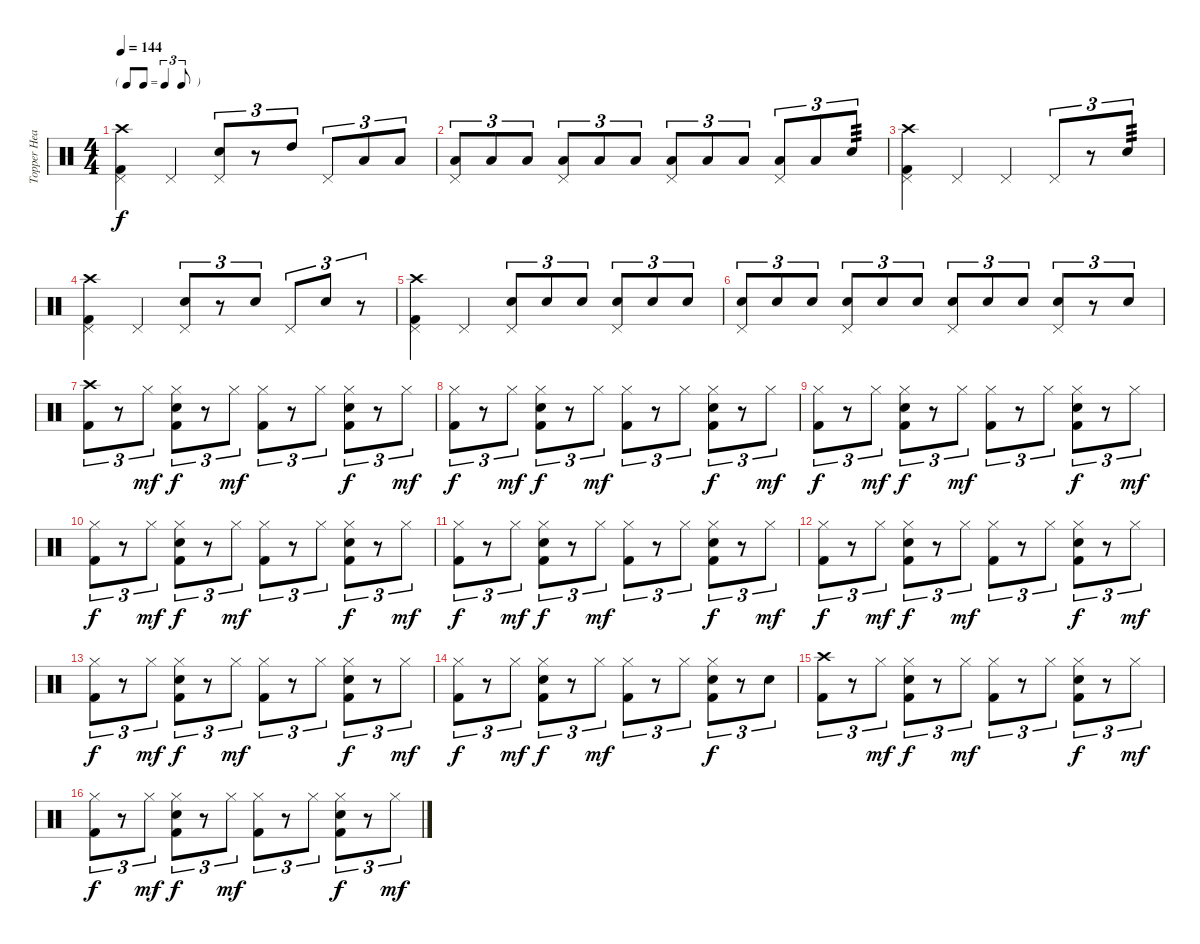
\track ("Topper Headon" "Topper Hea") {instrument percussion}
\staff {score}
\articulation defaults
\ts (4 4)
\tf triplet8th
\tempo 144
\clef neutral
\ks c
("Crash high (hit)" "Pedal Hi-Hat (hit)" "Kick (hit) 2").4{dy f} "Pedal Hi-Hat (hit)".4 ("Pedal Hi-Hat (hit)" "Snare (hit) 2").8{tu (3 2)} r.8{tu (3 2)} "High Tom (hit)".8{tu (3 2)} "Pedal Hi-Hat (hit)".8{tu (3 2)} "Low Tom (hit)".8{tu (3 2)} "Low Tom (hit)".8{tu (3 2)} |
("Pedal Hi-Hat (hit)" "Low Tom (hit)").8{tu (3 2)} "Low Tom (hit)".8{tu (3 2)} "Low Tom (hit)".8{tu (3 2)} ("Pedal Hi-Hat (hit)" "Low Tom (hit)").8{tu (3 2)} "Low Tom (hit)".8{tu (3 2)} "Low Tom (hit)".8{tu (3 2)} ("Pedal Hi-Hat (hit)" "Low Floor Tom (hit)").8{tu (3 2)} "Low Floor Tom (hit)".8{tu (3 2)} "Low Floor Tom (hit)".8{tu (3 2)} ("Pedal Hi-Hat (hit)" "Low Floor Tom (hit)").8{tu (3 2)} "Low Floor Tom (hit)".8{tu (3 2)} "Snare (hit) 2".8{tu (3 2) tp 3} |
("Crash high (hit)" "Pedal Hi-Hat (hit)" "Kick (hit) 2").4 "Pedal Hi-Hat (hit)".4 "Pedal Hi-Hat (hit)".4 "Pedal Hi-Hat (hit)".8{tu (3 2)} r.8{tu (3 2)} "Snare (hit) 2".8{tu (3 2) tp 3} |
("Crash high (hit)" "Pedal Hi-Hat (hit)" "Kick (hit) 2").4 "Pedal Hi-Hat (hit)".4 ("Pedal Hi-Hat (hit)" "Snare (hit) 2").8{tu (3 2)} r.8{tu (3 2)} "Snare (hit) 2".8{tu (3 2)} "Pedal Hi-Hat (hit)".8{tu (3 2)} "Snare (hit) 2".8{tu (3 2)} r.8{tu (3 2)} |
("Crash high (hit)" "Pedal Hi-Hat (hit)" "Kick (hit) 2").4 "Pedal Hi-Hat (hit)".4 ("Pedal Hi-Hat (hit)" "Snare (hit) 2").8{tu (3 2)} "Snare (hit) 2".8{tu (3 2)} "Snare (hit) 2".8{tu (3 2)} ("Pedal Hi-Hat (hit)" "Snare (hit) 2").8{tu (3 2)} "Snare (hit) 2".8{tu (3 2)} "Snare (hit) 2".8{tu (3 2)} |
("Pedal Hi-Hat (hit)" "Snare (hit) 2").8{tu (3 2)} "Snare (hit) 2".8{tu (3 2)} "Snare (hit) 2".8{tu (3 2)} ("Pedal Hi-Hat (hit)" "Snare (hit) 2").8{tu (3 2)} "Snare (hit) 2".8{tu (3 2)} "Snare (hit) 2".8{tu (3 2)} ("Pedal Hi-Hat (hit)" "Snare (hit) 2").8{tu (3 2)} "Snare (hit) 2".8{tu (3 2)} "Snare (hit) 2".8{tu (3 2)} ("Pedal Hi-Hat (hit)" "Snare (hit) 2").8{tu (3 2)} r.8{tu (3 2)} "Snare (hit) 2".8{tu (3 2)} |
("Crash high (hit)" "Kick (hit) 2").8{tu (3 2)} r.8{tu (3 2)} "Hi-Hat (closed)".8{tu (3 2) dy mf} ("Hi-Hat (closed)" "Snare (hit) 2" "Kick (hit) 2").8{tu (3 2) dy f} r.8{tu (3 2)} "Hi-Hat (closed)".8{tu (3 2) dy mf} ("Hi-Hat (closed)" "Kick (hit) 2").8{tu (3 2)} r.8{tu (3 2)} "Hi-Hat (closed)".8{tu (3 2)} ("Hi-Hat (closed)" "Snare (hit) 2" "Kick (hit) 2").8{tu (3 2) dy f} r.8{tu (3 2)} "Hi-Hat (closed)".8{tu (3 2) dy mf} |
("Hi-Hat (closed)" "Kick (hit) 2").8{tu (3 2) dy f} r.8{tu (3 2)} "Hi-Hat (closed)".8{tu (3 2) dy mf} ("Hi-Hat (closed)" "Snare (hit) 2" "Kick (hit) 2").8{tu (3 2) dy f} r.8{tu (3 2)} "Hi-Hat (closed)".8{tu (3 2) dy mf} ("Hi-Hat (closed)" "Kick (hit) 2").8{tu (3 2)} r.8{tu (3 2)} "Hi-Hat (closed)".8{tu (3 2)} ("Hi-Hat (closed)" "Snare (hit) 2" "Kick (hit) 2").8{tu (3 2) dy f} r.8{tu (3 2)} "Hi-Hat (closed)".8{tu (3 2) dy mf} |
("Hi-Hat (closed)" "Kick (hit) 2").8{tu (3 2) dy f} r.8{tu (3 2)} "Hi-Hat (closed)".8{tu (3 2) dy mf} ("Hi-Hat (closed)" "Snare (hit) 2" "Kick (hit) 2").8{tu (3 2) dy f} r.8{tu (3 2)} "Hi-Hat (closed)".8{tu (3 2) dy mf} ("Hi-Hat (closed)" "Kick (hit) 2").8{tu (3 2)} r.8{tu (3 2)} "Hi-Hat (closed)".8{tu (3 2)} ("Hi-Hat (closed)" "Snare (hit) 2" "Kick (hit) 2").8{tu (3 2) dy f} r.8{tu (3 2)} "Hi-Hat (closed)".8{tu (3 2) dy mf} |
("Hi-Hat (closed)" "Kick (hit) 2").8{tu (3 2) dy f} r.8{tu (3 2)} "Hi-Hat (closed)".8{tu (3 2) dy mf} ("Hi-Hat (closed)" "Snare (hit) 2" "Kick (hit) 2").8{tu (3 2) dy f} r.8{tu (3 2)} "Hi-Hat (closed)".8{tu (3 2) dy mf} ("Hi-Hat (closed)" "Kick (hit) 2").8{tu (3 2)} r.8{tu (3 2)} "Hi-Hat (closed)".8{tu (3 2)} ("Hi-Hat (closed)" "Snare (hit) 2" "Kick (hit) 2").8{tu (3 2) dy f} r.8{tu (3 2)} "Hi-Hat (closed)".8{tu (3 2) dy mf} |
("Hi-Hat (closed)" "Kick (hit) 2").8{tu (3 2) dy f} r.8{tu (3 2)} "Hi-Hat (closed)".8{tu (3 2) dy mf} ("Hi-Hat (closed)" "Snare (hit) 2" "Kick (hit) 2").8{tu (3 2) dy f} r.8{tu (3 2)} "Hi-Hat (closed)".8{tu (3 2) dy mf} ("Hi-Hat (closed)" "Kick (hit) 2").8{tu (3 2)} r.8{tu (3 2)} "Hi-Hat (closed)".8{tu (3 2)} ("Hi-Hat (closed)" "Snare (hit) 2" "Kick (hit) 2").8{tu (3 2) dy f} r.8{tu (3 2)} "Hi-Hat (closed)".8{tu (3 2) dy mf} |
("Hi-Hat (closed)" "Kick (hit) 2").8{tu (3 2) dy f} r.8{tu (3 2)} "Hi-Hat (closed)".8{tu (3 2) dy mf} ("Hi-Hat (closed)" "Snare (hit) 2" "Kick (hit) 2").8{tu (3 2) dy f} r.8{tu (3 2)} "Hi-Hat (closed)".8{tu (3 2) dy mf} ("Hi-Hat (closed)" "Kick (hit) 2").8{tu (3 2)} r.8{tu (3 2)} "Hi-Hat (closed)".8{tu (3 2)} ("Hi-Hat (closed)" "Snare (hit) 2" "Kick (hit) 2").8{tu (3 2) dy f} r.8{tu (3 2)} "Hi-Hat (closed)".8{tu (3 2) dy mf} |
("Hi-Hat (closed)" "Kick (hit) 2").8{tu (3 2) dy f} r.8{tu (3 2)} "Hi-Hat (closed)".8{tu (3 2) dy mf} ("Hi-Hat (closed)" "Snare (hit) 2" "Kick (hit) 2").8{tu (3 2) dy f} r.8{tu (3 2)} "Hi-Hat (closed)".8{tu (3 2) dy mf} ("Hi-Hat (closed)" "Kick (hit) 2").8{tu (3 2)} r.8{tu (3 2)} "Hi-Hat (closed)".8{tu (3 2)} ("Hi-Hat (closed)" "Snare (hit) 2" "Kick (hit) 2").8{tu (3 2) dy f} r.8{tu (3 2)} "Hi-Hat (closed)".8{tu (3 2) dy mf} |
("Hi-Hat (closed)" "Kick (hit) 2").8{tu (3 2) dy f} r.8{tu (3 2)} "Hi-Hat (closed)".8{tu (3 2) dy mf} ("Hi-Hat (closed)" "Snare (hit) 2" "Kick (hit) 2").8{tu (3 2) dy f} r.8{tu (3 2)} "Hi-Hat (closed)".8{tu (3 2) dy mf} ("Hi-Hat (closed)" "Kick (hit) 2").8{tu (3 2)} r.8{tu (3 2)} "Hi-Hat (closed)".8{tu (3 2)} ("Hi-Hat (closed)" "Snare (hit) 2" "Kick (hit) 2").8{tu (3 2) dy f} r.8{tu (3 2)} "Snare (hit) 2".8{tu (3 2)} |
("Crash high (hit)" "Kick (hit) 2").8{tu (3 2)} r.8{tu (3 2)} "Hi-Hat (closed)".8{tu (3 2) dy mf} ("Hi-Hat (closed)" "Snare (hit) 2" "Kick (hit) 2").8{tu (3 2) dy f} r.8{tu (3 2)} "Hi-Hat (closed)".8{tu (3 2) dy mf} ("Hi-Hat (closed)" "Kick (hit) 2").8{tu (3 2)} r.8{tu (3 2)} "Hi-Hat (closed)".8{tu (3 2)} ("Hi-Hat (closed)" "Snare (hit) 2" "Kick (hit) 2").8{tu (3 2) dy f} r.8{tu (3 2)} "Hi-Hat (closed)".8{tu (3 2) dy mf} |
("Hi-Hat (closed)" "Kick (hit) 2").8{tu (3 2) dy f} r.8{tu (3 2)} "Hi-Hat (closed)".8{tu (3 2) dy mf} ("Hi-Hat (closed)" "Snare (hit) 2" "Kick (hit) 2").8{tu (3 2) dy f} r.8{tu (3 2)} "Hi-Hat (closed)".8{tu (3 2) dy mf} ("Hi-Hat (closed)" "Kick (hit) 2").8{tu (3 2)} r.8{tu (3 2)} "Hi-Hat (closed)".8{tu (3 2)} ("Hi-Hat (closed)" "Snare (hit) 2" "Kick (hit) 2").8{tu (3 2) dy f} r.8{tu (3 2)} "Hi-Hat (closed)".8{tu (3 2) dy mf}
